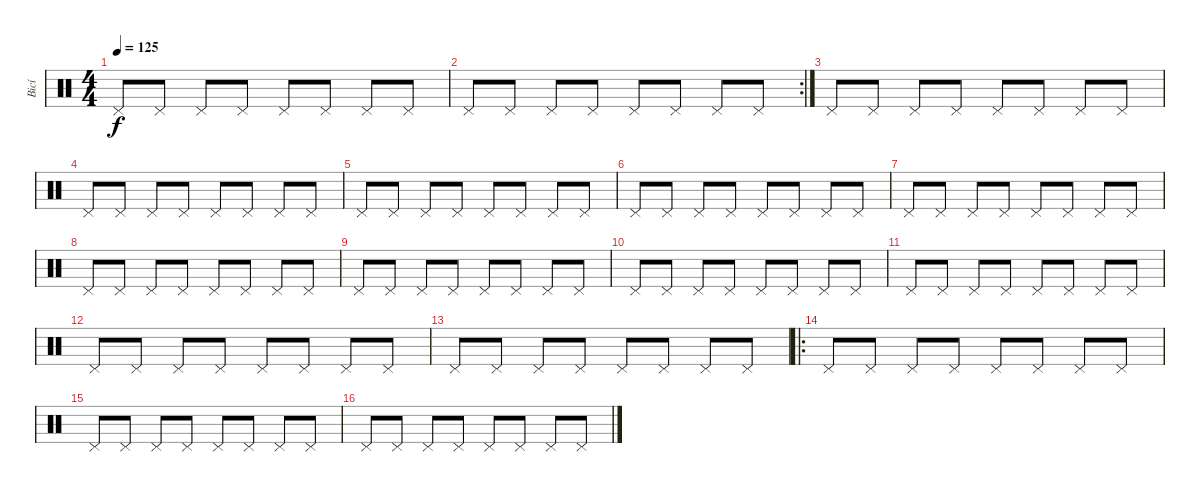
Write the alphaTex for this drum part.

\track ("Bicí" "Bicí") {instrument percussion}
\staff {score}
\articulation defaults
\ts (4 4)
\tempo 125
\clef neutral
\ks c "Pedal Hi-Hat (hit)".8{dy f} "Pedal Hi-Hat (hit)".8 "Pedal Hi-Hat (hit)".8 "Pedal Hi-Hat (hit)".8 "Pedal Hi-Hat (hit)".8 "Pedal Hi-Hat (hit)".8 "Pedal Hi-Hat (hit)".8 "Pedal Hi-Hat (hit)".8
|
\rc 2 "Pedal Hi-Hat (hit)".8 "Pedal Hi-Hat (hit)".8 "Pedal Hi-Hat (hit)".8 "Pedal Hi-Hat (hit)".8 "Pedal Hi-Hat (hit)".8 "Pedal Hi-Hat (hit)".8 "Pedal Hi-Hat (hit)".8 "Pedal Hi-Hat (hit)".8
|
"Pedal Hi-Hat (hit)".8 "Pedal Hi-Hat (hit)".8 "Pedal Hi-Hat (hit)".8 "Pedal Hi-Hat (hit)".8 "Pedal Hi-Hat (hit)".8 "Pedal Hi-Hat (hit)".8 "Pedal Hi-Hat (hit)".8 "Pedal Hi-Hat (hit)".8 |
"Pedal Hi-Hat (hit)".8 "Pedal Hi-Hat (hit)".8 "Pedal Hi-Hat (hit)".8 "Pedal Hi-Hat (hit)".8 "Pedal Hi-Hat (hit)".8 "Pedal Hi-Hat (hit)".8 "Pedal Hi-Hat (hit)".8 "Pedal Hi-Hat (hit)".8 |
"Pedal Hi-Hat (hit)".8 "Pedal Hi-Hat (hit)".8 "Pedal Hi-Hat (hit)".8 "Pedal Hi-Hat (hit)".8 "Pedal Hi-Hat (hit)".8 "Pedal Hi-Hat (hit)".8 "Pedal Hi-Hat (hit)".8 "Pedal Hi-Hat (hit)".8 |
"Pedal Hi-Hat (hit)".8 "Pedal Hi-Hat (hit)".8 "Pedal Hi-Hat (hit)".8 "Pedal Hi-Hat (hit)".8 "Pedal Hi-Hat (hit)".8 "Pedal Hi-Hat (hit)".8 "Pedal Hi-Hat (hit)".8 "Pedal Hi-Hat (hit)".8 |
"Pedal Hi-Hat (hit)".8 "Pedal Hi-Hat (hit)".8 "Pedal Hi-Hat (hit)".8 "Pedal Hi-Hat (hit)".8 "Pedal Hi-Hat (hit)".8 "Pedal Hi-Hat (hit)".8 "Pedal Hi-Hat (hit)".8 "Pedal Hi-Hat (hit)".8 |
"Pedal Hi-Hat (hit)".8 "Pedal Hi-Hat (hit)".8 "Pedal Hi-Hat (hit)".8 "Pedal Hi-Hat (hit)".8 "Pedal Hi-Hat (hit)".8 "Pedal Hi-Hat (hit)".8 "Pedal Hi-Hat (hit)".8 "Pedal Hi-Hat (hit)".8 |
"Pedal Hi-Hat (hit)".8 "Pedal Hi-Hat (hit)".8 "Pedal Hi-Hat (hit)".8 "Pedal Hi-Hat (hit)".8 "Pedal Hi-Hat (hit)".8 "Pedal Hi-Hat (hit)".8 "Pedal Hi-Hat (hit)".8 "Pedal Hi-Hat (hit)".8 |
"Pedal Hi-Hat (hit)".8 "Pedal Hi-Hat (hit)".8 "Pedal Hi-Hat (hit)".8 "Pedal Hi-Hat (hit)".8 "Pedal Hi-Hat (hit)".8 "Pedal Hi-Hat (hit)".8 "Pedal Hi-Hat (hit)".8 "Pedal Hi-Hat (hit)".8 |
"Pedal Hi-Hat (hit)".8 "Pedal Hi-Hat (hit)".8 "Pedal Hi-Hat (hit)".8 "Pedal Hi-Hat (hit)".8 "Pedal Hi-Hat (hit)".8 "Pedal Hi-Hat (hit)".8 "Pedal Hi-Hat (hit)".8 "Pedal Hi-Hat (hit)".8 |
"Pedal Hi-Hat (hit)".8 "Pedal Hi-Hat (hit)".8 "Pedal Hi-Hat (hit)".8 "Pedal Hi-Hat (hit)".8 "Pedal Hi-Hat (hit)".8 "Pedal Hi-Hat (hit)".8 "Pedal Hi-Hat (hit)".8 "Pedal Hi-Hat (hit)".8 |
"Pedal Hi-Hat (hit)".8 "Pedal Hi-Hat (hit)".8 "Pedal Hi-Hat (hit)".8 "Pedal Hi-Hat (hit)".8 "Pedal Hi-Hat (hit)".8 "Pedal Hi-Hat (hit)".8 "Pedal Hi-Hat (hit)".8 "Pedal Hi-Hat (hit)".8 |
\ro "Pedal Hi-Hat (hit)".8 "Pedal Hi-Hat (hit)".8 "Pedal Hi-Hat (hit)".8 "Pedal Hi-Hat (hit)".8 "Pedal Hi-Hat (hit)".8 "Pedal Hi-Hat (hit)".8 "Pedal Hi-Hat (hit)".8 "Pedal Hi-Hat (hit)".8
|
"Pedal Hi-Hat (hit)".8 "Pedal Hi-Hat (hit)".8 "Pedal Hi-Hat (hit)".8 "Pedal Hi-Hat (hit)".8 "Pedal Hi-Hat (hit)".8 "Pedal Hi-Hat (hit)".8 "Pedal Hi-Hat (hit)".8 "Pedal Hi-Hat (hit)".8 |
"Pedal Hi-Hat (hit)".8 "Pedal Hi-Hat (hit)".8 "Pedal Hi-Hat (hit)".8 "Pedal Hi-Hat (hit)".8 "Pedal Hi-Hat (hit)".8 "Pedal Hi-Hat (hit)".8 "Pedal Hi-Hat (hit)".8 "Pedal Hi-Hat (hit)".8
